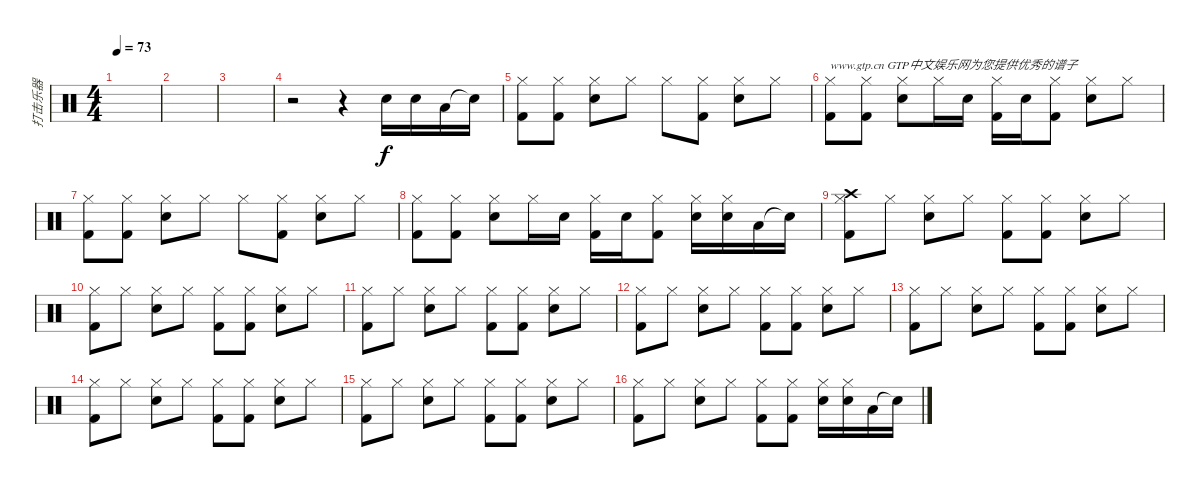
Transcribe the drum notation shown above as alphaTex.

\track ("打击乐器" "打击乐器") {instrument percussion}
\staff {score}
\articulation defaults
\ts (4 4)
\tempo 73
\clef neutral
\ks c
|
|
|
r.2 r.4 "Electric Snare (hit)".16 "Electric Snare (hit)".16 "Low Floor Tom (hit)".16 "Snare (hit)"{t}.16 |
("Hi-Hat (closed)" "Kick (hit) 2").8 ("Hi-Hat (closed)" "Kick (hit) 2").8 ("Hi-Hat (closed)" "Electric Snare (hit)").8 "Hi-Hat (closed)".8 "Hi-Hat (closed)".8 ("Hi-Hat (closed)" "Kick (hit) 2").8 ("Hi-Hat (closed)" "Electric Snare (hit)").8 "Hi-Hat (closed)".8 |
("Hi-Hat (closed)" "Kick (hit) 2").8{txt "www.gtp.cn GTP中文娱乐网为您提供优秀的谱子"} ("Hi-Hat (closed)" "Kick (hit) 2").8 ("Hi-Hat (closed)" "Electric Snare (hit)").8 "Hi-Hat (closed)".16 "Electric Snare (hit)".16 ("Hi-Hat (closed)" "Kick (hit) 2").16 "Electric Snare (hit)".16 ("Hi-Hat (closed)" "Kick (hit) 2").8 ("Hi-Hat (closed)" "Electric Snare (hit)").8 "Hi-Hat (closed)".8 |
("Hi-Hat (closed)" "Kick (hit) 2").8 ("Hi-Hat (closed)" "Kick (hit) 2").8 ("Hi-Hat (closed)" "Electric Snare (hit)").8 "Hi-Hat (closed)".8 "Hi-Hat (closed)".8 ("Hi-Hat (closed)" "Kick (hit) 2").8 ("Hi-Hat (closed)" "Electric Snare (hit)").8 "Hi-Hat (closed)".8 |
("Hi-Hat (closed)" "Kick (hit) 2").8 ("Hi-Hat (closed)" "Kick (hit) 2").8 ("Hi-Hat (closed)" "Electric Snare (hit)").8 "Hi-Hat (closed)".16 "Electric Snare (hit)".16 ("Hi-Hat (closed)" "Kick (hit) 2").16 "Electric Snare (hit)".16 ("Hi-Hat (closed)" "Kick (hit) 2").8 ("Hi-Hat (closed)" "Electric Snare (hit)").16 ("Hi-Hat (closed)" "Electric Snare (hit)").16 "Low Floor Tom (hit)".16 "Snare (hit)"{t}.16 |
("Crash high (hit)" "Hi-Hat (closed)" "Kick (hit) 2").8 "Hi-Hat (closed)".8 ("Hi-Hat (closed)" "Electric Snare (hit)").8 "Hi-Hat (closed)".8 ("Hi-Hat (closed)" "Kick (hit) 2").8 ("Hi-Hat (closed)" "Kick (hit) 2").8 ("Hi-Hat (closed)" "Electric Snare (hit)").8 "Hi-Hat (closed)".8 |
("Hi-Hat (closed)" "Kick (hit) 2").8 "Hi-Hat (closed)".8 ("Hi-Hat (closed)" "Electric Snare (hit)").8 "Hi-Hat (closed)".8 ("Hi-Hat (closed)" "Kick (hit) 2").8 ("Hi-Hat (closed)" "Kick (hit) 2").8 ("Hi-Hat (closed)" "Electric Snare (hit)").8 "Hi-Hat (closed)".8 |
("Hi-Hat (closed)" "Kick (hit) 2").8 "Hi-Hat (closed)".8 ("Hi-Hat (closed)" "Electric Snare (hit)").8 "Hi-Hat (closed)".8 ("Hi-Hat (closed)" "Kick (hit) 2").8 ("Hi-Hat (closed)" "Kick (hit) 2").8 ("Hi-Hat (closed)" "Electric Snare (hit)").8 "Hi-Hat (closed)".8 |
("Hi-Hat (closed)" "Kick (hit) 2").8 "Hi-Hat (closed)".8 ("Hi-Hat (closed)" "Electric Snare (hit)").8 "Hi-Hat (closed)".8 ("Hi-Hat (closed)" "Kick (hit) 2").8 ("Hi-Hat (closed)" "Kick (hit) 2").8 ("Hi-Hat (closed)" "Electric Snare (hit)").8 "Hi-Hat (closed)".8 |
("Hi-Hat (closed)" "Kick (hit) 2").8 "Hi-Hat (closed)".8 ("Hi-Hat (closed)" "Electric Snare (hit)").8 "Hi-Hat (closed)".8 ("Hi-Hat (closed)" "Kick (hit) 2").8 ("Hi-Hat (closed)" "Kick (hit) 2").8 ("Hi-Hat (closed)" "Electric Snare (hit)").8 "Hi-Hat (closed)".8 |
("Hi-Hat (closed)" "Kick (hit) 2").8 "Hi-Hat (closed)".8 ("Hi-Hat (closed)" "Electric Snare (hit)").8 "Hi-Hat (closed)".8 ("Hi-Hat (closed)" "Kick (hit) 2").8 ("Hi-Hat (closed)" "Kick (hit) 2").8 ("Hi-Hat (closed)" "Electric Snare (hit)").8 "Hi-Hat (closed)".8 |
("Hi-Hat (closed)" "Kick (hit) 2").8 "Hi-Hat (closed)".8 ("Hi-Hat (closed)" "Electric Snare (hit)").8 "Hi-Hat (closed)".8 ("Hi-Hat (closed)" "Kick (hit) 2").8 ("Hi-Hat (closed)" "Kick (hit) 2").8 ("Hi-Hat (closed)" "Electric Snare (hit)").8 "Hi-Hat (closed)".8 |
("Hi-Hat (closed)" "Kick (hit) 2").8 "Hi-Hat (closed)".8 ("Hi-Hat (closed)" "Electric Snare (hit)").8 "Hi-Hat (closed)".8 ("Hi-Hat (closed)" "Kick (hit) 2").8 ("Hi-Hat (closed)" "Kick (hit) 2").8 ("Hi-Hat (closed)" "Electric Snare (hit)").16 ("Hi-Hat (closed)" "Electric Snare (hit)").16 "Low Floor Tom (hit)".16 "Snare (hit)"{t}.16
